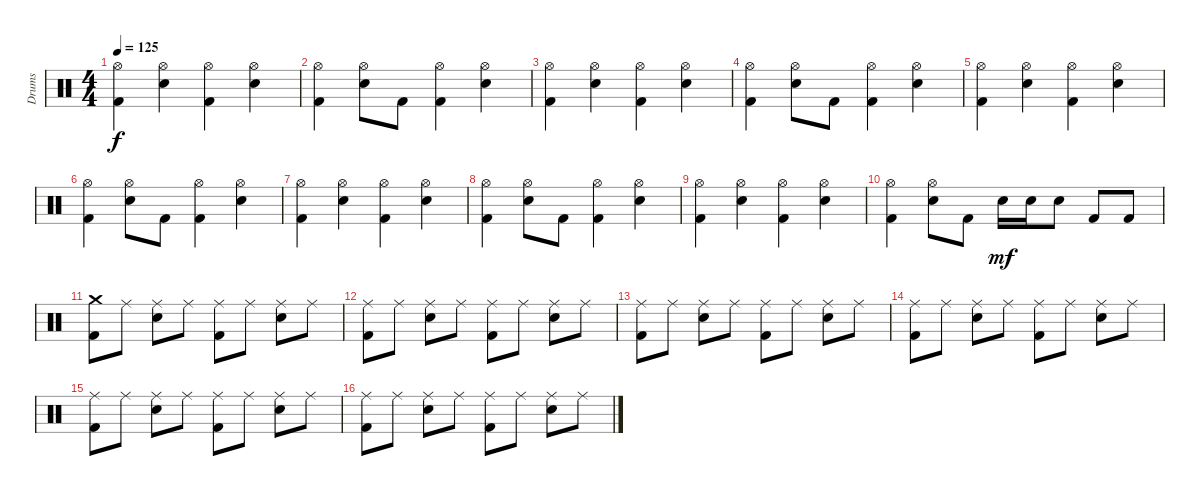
\track ("Drums" "Drums") {instrument percussion}
\staff {score}
\articulation defaults
\ts (4 4)
\tempo 125
\clef neutral
\ks c
("Hi-Hat (open)" "Kick (hit) 2").4{dy f} ("Hi-Hat (open)" "Electric Snare (hit)").4 ("Hi-Hat (open)" "Kick (hit) 2").4 ("Hi-Hat (open)" "Electric Snare (hit)").4 |
("Hi-Hat (open)" "Kick (hit) 2").4 ("Hi-Hat (open)" "Electric Snare (hit)").8 "Kick (hit) 2".8 ("Hi-Hat (open)" "Kick (hit) 2").4 ("Hi-Hat (open)" "Electric Snare (hit)").4 |
("Hi-Hat (open)" "Kick (hit) 2").4 ("Hi-Hat (open)" "Electric Snare (hit)").4 ("Hi-Hat (open)" "Kick (hit) 2").4 ("Hi-Hat (open)" "Electric Snare (hit)").4 |
("Hi-Hat (open)" "Kick (hit) 2").4 ("Hi-Hat (open)" "Electric Snare (hit)").8 "Kick (hit) 2".8 ("Hi-Hat (open)" "Kick (hit) 2").4 ("Hi-Hat (open)" "Electric Snare (hit)").4 |
("Hi-Hat (open)" "Kick (hit) 2").4 ("Hi-Hat (open)" "Electric Snare (hit)").4 ("Hi-Hat (open)" "Kick (hit) 2").4 ("Hi-Hat (open)" "Electric Snare (hit)").4 |
("Hi-Hat (open)" "Kick (hit) 2").4 ("Hi-Hat (open)" "Electric Snare (hit)").8 "Kick (hit) 2".8 ("Hi-Hat (open)" "Kick (hit) 2").4 ("Hi-Hat (open)" "Electric Snare (hit)").4 |
("Hi-Hat (open)" "Kick (hit) 2").4 ("Hi-Hat (open)" "Electric Snare (hit)").4 ("Hi-Hat (open)" "Kick (hit) 2").4 ("Hi-Hat (open)" "Electric Snare (hit)").4 |
("Hi-Hat (open)" "Kick (hit) 2").4 ("Hi-Hat (open)" "Electric Snare (hit)").8 "Kick (hit) 2".8 ("Hi-Hat (open)" "Kick (hit) 2").4 ("Hi-Hat (open)" "Electric Snare (hit)").4 |
("Hi-Hat (open)" "Kick (hit) 2").4 ("Hi-Hat (open)" "Electric Snare (hit)").4 ("Hi-Hat (open)" "Kick (hit) 2").4 ("Hi-Hat (open)" "Electric Snare (hit)").4 |
("Hi-Hat (open)" "Kick (hit) 2").4 ("Hi-Hat (open)" "Electric Snare (hit)").8 "Kick (hit) 2".8 "Electric Snare (hit)".16{dy mf} "Electric Snare (hit)".16 "Electric Snare (hit)".8 "Kick (hit) 2".8 "Kick (hit) 2".8 |
("Crash medium (hit)" "Kick (hit) 2").8 "Ride (middle)".8 ("Ride (middle)" "Electric Snare (hit)").8 "Ride (middle)".8 ("Ride (middle)" "Kick (hit) 2").8 "Ride (middle)".8 ("Ride (middle)" "Electric Snare (hit)").8 "Ride (middle)".8 |
("Ride (middle)" "Kick (hit) 2").8 "Ride (middle)".8 ("Ride (middle)" "Electric Snare (hit)").8 "Ride (middle)".8 ("Ride (middle)" "Kick (hit) 2").8 "Ride (middle)".8 ("Ride (middle)" "Electric Snare (hit)").8 "Ride (middle)".8 |
("Ride (middle)" "Kick (hit) 2").8 "Ride (middle)".8 ("Ride (middle)" "Electric Snare (hit)").8 "Ride (middle)".8 ("Ride (middle)" "Kick (hit) 2").8 "Ride (middle)".8 ("Ride (middle)" "Electric Snare (hit)").8 "Ride (middle)".8 |
("Ride (middle)" "Kick (hit) 2").8 "Ride (middle)".8 ("Ride (middle)" "Electric Snare (hit)").8 "Ride (middle)".8 ("Ride (middle)" "Kick (hit) 2").8 "Ride (middle)".8 ("Ride (middle)" "Electric Snare (hit)").8 "Ride (middle)".8 |
("Ride (middle)" "Kick (hit) 2").8 "Ride (middle)".8 ("Ride (middle)" "Electric Snare (hit)").8 "Ride (middle)".8 ("Ride (middle)" "Kick (hit) 2").8 "Ride (middle)".8 ("Ride (middle)" "Electric Snare (hit)").8 "Ride (middle)".8 |
("Ride (middle)" "Kick (hit) 2").8 "Ride (middle)".8 ("Ride (middle)" "Electric Snare (hit)").8 "Ride (middle)".8 ("Ride (middle)" "Kick (hit) 2").8 "Ride (middle)".8 ("Ride (middle)" "Electric Snare (hit)").8 "Ride (middle)".8
